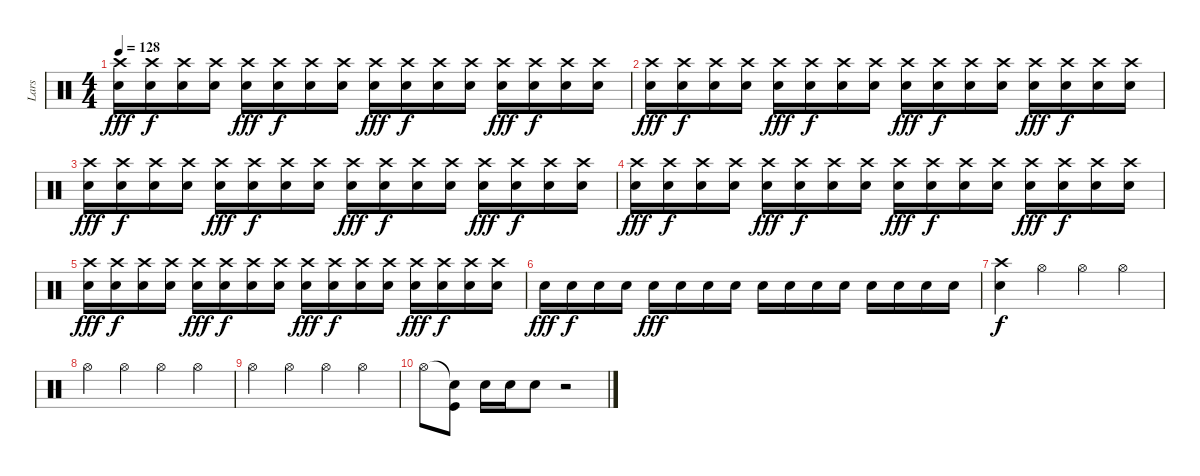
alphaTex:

\track ("Lars" "Lars") {instrument percussion}
\staff {score}
\articulation defaults
\ts (4 4)
\tempo 128
\clef neutral
\ks c
("Crash high (hit)" "Snare (hit) 2").16{dy fff} ("Crash high (hit)" "Snare (hit) 2").16{dy f} ("Crash high (hit)" "Snare (hit) 2").16 ("Crash high (hit)" "Snare (hit) 2").16 ("Crash high (hit)" "Snare (hit) 2").16{dy fff} ("Crash high (hit)" "Snare (hit) 2").16{dy f} ("Crash high (hit)" "Snare (hit) 2").16 ("Crash high (hit)" "Snare (hit) 2").16 ("Crash high (hit)" "Snare (hit) 2").16{dy fff} ("Crash high (hit)" "Snare (hit) 2").16{dy f} ("Crash high (hit)" "Snare (hit) 2").16 ("Crash high (hit)" "Snare (hit) 2").16 ("Crash high (hit)" "Snare (hit) 2").16{dy fff} ("Crash high (hit)" "Snare (hit) 2").16{dy f} ("Crash high (hit)" "Snare (hit) 2").16 ("Crash high (hit)" "Snare (hit) 2").16 |
("Crash high (hit)" "Snare (hit) 2").16{dy fff} ("Crash high (hit)" "Snare (hit) 2").16{dy f} ("Crash high (hit)" "Snare (hit) 2").16 ("Crash high (hit)" "Snare (hit) 2").16 ("Crash high (hit)" "Snare (hit) 2").16{dy fff} ("Crash high (hit)" "Snare (hit) 2").16{dy f} ("Crash high (hit)" "Snare (hit) 2").16 ("Crash high (hit)" "Snare (hit) 2").16 ("Crash high (hit)" "Snare (hit) 2").16{dy fff} ("Crash high (hit)" "Snare (hit) 2").16{dy f} ("Crash high (hit)" "Snare (hit) 2").16 ("Crash high (hit)" "Snare (hit) 2").16 ("Crash high (hit)" "Snare (hit) 2").16{dy fff} ("Crash high (hit)" "Snare (hit) 2").16{dy f} ("Crash high (hit)" "Snare (hit) 2").16 ("Crash high (hit)" "Snare (hit) 2").16 |
("Crash high (hit)" "Snare (hit) 2").16{dy fff} ("Crash high (hit)" "Snare (hit) 2").16{dy f} ("Crash high (hit)" "Snare (hit) 2").16 ("Crash high (hit)" "Snare (hit) 2").16 ("Crash high (hit)" "Snare (hit) 2").16{dy fff} ("Crash high (hit)" "Snare (hit) 2").16{dy f} ("Crash high (hit)" "Snare (hit) 2").16 ("Crash high (hit)" "Snare (hit) 2").16 ("Crash high (hit)" "Snare (hit) 2").16{dy fff} ("Crash high (hit)" "Snare (hit) 2").16{dy f} ("Crash high (hit)" "Snare (hit) 2").16 ("Crash high (hit)" "Snare (hit) 2").16 ("Crash high (hit)" "Snare (hit) 2").16{dy fff} ("Crash high (hit)" "Snare (hit) 2").16{dy f} ("Crash high (hit)" "Snare (hit) 2").16 ("Crash high (hit)" "Snare (hit) 2").16 |
("Crash high (hit)" "Snare (hit) 2").16{dy fff} ("Crash high (hit)" "Snare (hit) 2").16{dy f} ("Crash high (hit)" "Snare (hit) 2").16 ("Crash high (hit)" "Snare (hit) 2").16 ("Crash high (hit)" "Snare (hit) 2").16{dy fff} ("Crash high (hit)" "Snare (hit) 2").16{dy f} ("Crash high (hit)" "Snare (hit) 2").16 ("Crash high (hit)" "Snare (hit) 2").16 ("Crash high (hit)" "Snare (hit) 2").16{dy fff} ("Crash high (hit)" "Snare (hit) 2").16{dy f} ("Crash high (hit)" "Snare (hit) 2").16 ("Crash high (hit)" "Snare (hit) 2").16 ("Crash high (hit)" "Snare (hit) 2").16{dy fff} ("Crash high (hit)" "Snare (hit) 2").16{dy f} ("Crash high (hit)" "Snare (hit) 2").16 ("Crash high (hit)" "Snare (hit) 2").16 |
("Crash high (hit)" "Snare (hit) 2").16{dy fff} ("Crash high (hit)" "Snare (hit) 2").16{dy f} ("Crash high (hit)" "Snare (hit) 2").16 ("Crash high (hit)" "Snare (hit) 2").16 ("Crash high (hit)" "Snare (hit) 2").16{dy fff} ("Crash high (hit)" "Snare (hit) 2").16{dy f} ("Crash high (hit)" "Snare (hit) 2").16 ("Crash high (hit)" "Snare (hit) 2").16 ("Crash high (hit)" "Snare (hit) 2").16{dy fff} ("Crash high (hit)" "Snare (hit) 2").16{dy f} ("Crash high (hit)" "Snare (hit) 2").16 ("Crash high (hit)" "Snare (hit) 2").16 ("Crash high (hit)" "Snare (hit) 2").16{dy fff} ("Crash high (hit)" "Snare (hit) 2").16{dy f} ("Crash high (hit)" "Snare (hit) 2").16 ("Crash high (hit)" "Snare (hit) 2").16 |
"Snare (hit) 2".16{dy fff} "Snare (hit) 2".16{dy f} "Snare (hit) 2".16 "Snare (hit) 2".16 "Snare (hit) 2".16{dy fff} "Snare (hit) 2".16 "Snare (hit) 2".16 "Snare (hit) 2".16 "Snare (hit) 2".16 "Snare (hit) 2".16 "Snare (hit) 2".16 "Snare (hit) 2".16 "Snare (hit) 2".16 "Snare (hit) 2".16 "Snare (hit) 2".16 "Snare (hit) 2".16 |
("Crash high (hit)" "Snare (hit) 2").4{dy f} "Hi-Hat (open)".4 "Hi-Hat (open)".4 "Hi-Hat (open)".4 |
"Hi-Hat (open)".4 "Hi-Hat (open)".4 "Hi-Hat (open)".4 "Hi-Hat (open)".4 |
"Hi-Hat (open)".4 "Hi-Hat (open)".4 "Hi-Hat (open)".4 "Hi-Hat (open)".4 |
"Hi-Hat (open)".8 ("Snare (hit) 2"{t} "Kick (hit)").8 "Snare (hit) 2".16 "Snare (hit) 2".16 "Snare (hit) 2".8 r.2
